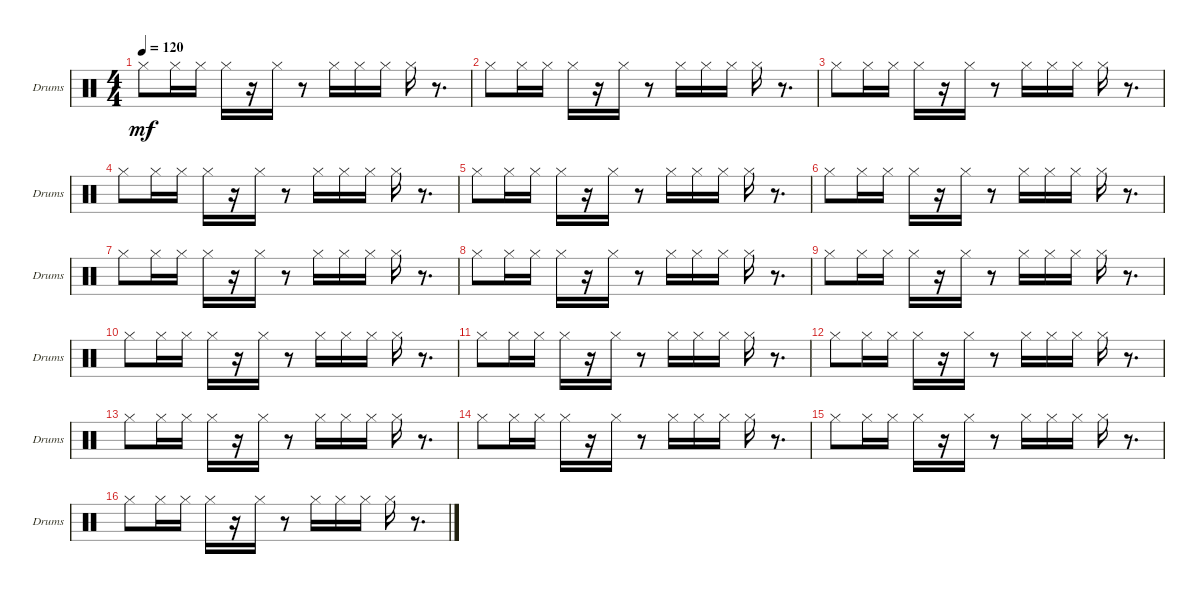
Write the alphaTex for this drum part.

\bracketExtendMode groupsimilarinstruments
\singleTrackTrackNamePolicy allsystems
\multiTrackTrackNamePolicy allsystems
\firstSystemTrackNameOrientation horizontal
\otherSystemsTrackNameOrientation horizontal
\track ("Drum hihat" "Drums") {instrument percussion}
\staff {score}
\articulation defaults
\ts (4 4)
\tempo 120
\clef neutral
\scale
0.973518
\ks c "Hi-Hat (closed)".8{dy mf} "Hi-Hat (closed)".16 "Hi-Hat (closed)".16 "Hi-Hat (closed)".16
r.16 "Hi-Hat (closed)".16 r.8 "Hi-Hat (closed)".16 "Hi-Hat (closed)".16 "Hi-Hat (closed)".16 "Hi-Hat (closed)".16 r.8{d} |
\scale
1.05296 "Hi-Hat (closed)".8 "Hi-Hat (closed)".16 "Hi-Hat (closed)".16 "Hi-Hat (closed)".16 r.16 "Hi-Hat (closed)".16 r.8 "Hi-Hat (closed)".16 "Hi-Hat (closed)".16 "Hi-Hat (closed)".16 "Hi-Hat (closed)".16 r.8{d} |
\scale
0.973518 "Hi-Hat (closed)".8 "Hi-Hat (closed)".16 "Hi-Hat (closed)".16 "Hi-Hat (closed)".16 r.16 "Hi-Hat (closed)".16 r.8 "Hi-Hat (closed)".16 "Hi-Hat (closed)".16 "Hi-Hat (closed)".16 "Hi-Hat (closed)".16 r.8{d} |
\scale
0.973518 "Hi-Hat (closed)".8 "Hi-Hat (closed)".16 "Hi-Hat (closed)".16 "Hi-Hat (closed)".16 r.16 "Hi-Hat (closed)".16 r.8 "Hi-Hat (closed)".16 "Hi-Hat (closed)".16 "Hi-Hat (closed)".16 "Hi-Hat (closed)".16 r.8{d} |
\scale
1.05296 "Hi-Hat (closed)".8 "Hi-Hat (closed)".16 "Hi-Hat (closed)".16 "Hi-Hat (closed)".16 r.16 "Hi-Hat (closed)".16 r.8 "Hi-Hat (closed)".16 "Hi-Hat (closed)".16 "Hi-Hat (closed)".16 "Hi-Hat (closed)".16 r.8{d} |
\scale
0.973518 "Hi-Hat (closed)".8 "Hi-Hat (closed)".16 "Hi-Hat (closed)".16 "Hi-Hat (closed)".16 r.16 "Hi-Hat (closed)".16 r.8 "Hi-Hat (closed)".16 "Hi-Hat (closed)".16 "Hi-Hat (closed)".16 "Hi-Hat (closed)".16 r.8{d} |
\scale
0.973518 "Hi-Hat (closed)".8 "Hi-Hat (closed)".16 "Hi-Hat (closed)".16 "Hi-Hat (closed)".16 r.16 "Hi-Hat (closed)".16 r.8 "Hi-Hat (closed)".16 "Hi-Hat (closed)".16 "Hi-Hat (closed)".16 "Hi-Hat (closed)".16 r.8{d} |
\scale
1.05296 "Hi-Hat (closed)".8 "Hi-Hat (closed)".16 "Hi-Hat (closed)".16 "Hi-Hat (closed)".16 r.16 "Hi-Hat (closed)".16 r.8 "Hi-Hat (closed)".16 "Hi-Hat (closed)".16 "Hi-Hat (closed)".16 "Hi-Hat (closed)".16 r.8{d} |
\scale
0.973518 "Hi-Hat (closed)".8 "Hi-Hat (closed)".16 "Hi-Hat (closed)".16 "Hi-Hat (closed)".16 r.16 "Hi-Hat (closed)".16 r.8 "Hi-Hat (closed)".16 "Hi-Hat (closed)".16 "Hi-Hat (closed)".16 "Hi-Hat (closed)".16 r.8{d} |
\scale
0.973518 "Hi-Hat (closed)".8 "Hi-Hat (closed)".16 "Hi-Hat (closed)".16 "Hi-Hat (closed)".16 r.16 "Hi-Hat (closed)".16 r.8 "Hi-Hat (closed)".16 "Hi-Hat (closed)".16 "Hi-Hat (closed)".16 "Hi-Hat (closed)".16 r.8{d} |
\scale
1.05296 "Hi-Hat (closed)".8 "Hi-Hat (closed)".16 "Hi-Hat (closed)".16 "Hi-Hat (closed)".16 r.16 "Hi-Hat (closed)".16 r.8 "Hi-Hat (closed)".16 "Hi-Hat (closed)".16 "Hi-Hat (closed)".16 "Hi-Hat (closed)".16 r.8{d} |
\scale
0.973518 "Hi-Hat (closed)".8 "Hi-Hat (closed)".16 "Hi-Hat (closed)".16 "Hi-Hat (closed)".16 r.16 "Hi-Hat (closed)".16 r.8 "Hi-Hat (closed)".16 "Hi-Hat (closed)".16 "Hi-Hat (closed)".16 "Hi-Hat (closed)".16 r.8{d} |
\scale
0.973518 "Hi-Hat (closed)".8 "Hi-Hat (closed)".16 "Hi-Hat (closed)".16 "Hi-Hat (closed)".16 r.16 "Hi-Hat (closed)".16 r.8 "Hi-Hat (closed)".16 "Hi-Hat (closed)".16 "Hi-Hat (closed)".16 "Hi-Hat (closed)".16 r.8{d} |
\scale
1.05296 "Hi-Hat (closed)".8 "Hi-Hat (closed)".16 "Hi-Hat (closed)".16 "Hi-Hat (closed)".16 r.16 "Hi-Hat (closed)".16 r.8 "Hi-Hat (closed)".16 "Hi-Hat (closed)".16 "Hi-Hat (closed)".16 "Hi-Hat (closed)".16 r.8{d} |
\scale
0.973518 "Hi-Hat (closed)".8 "Hi-Hat (closed)".16 "Hi-Hat (closed)".16 "Hi-Hat (closed)".16 r.16 "Hi-Hat (closed)".16 r.8 "Hi-Hat (closed)".16 "Hi-Hat (closed)".16 "Hi-Hat (closed)".16 "Hi-Hat (closed)".16 r.8{d} |
\scale
0.973518 "Hi-Hat (closed)".8 "Hi-Hat (closed)".16 "Hi-Hat (closed)".16 "Hi-Hat (closed)".16 r.16 "Hi-Hat (closed)".16 r.8 "Hi-Hat (closed)".16 "Hi-Hat (closed)".16 "Hi-Hat (closed)".16 "Hi-Hat (closed)".16 r.8{d}
